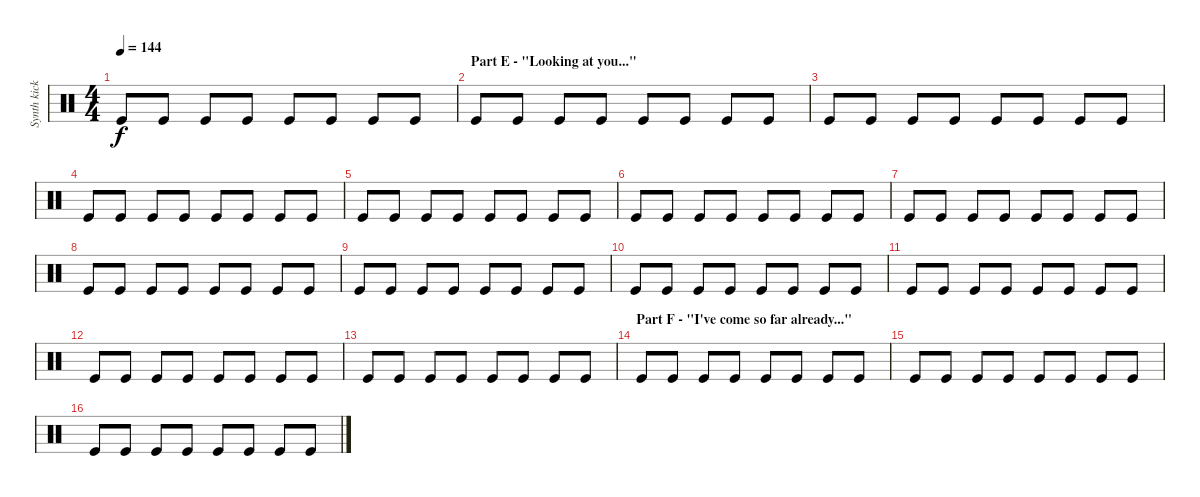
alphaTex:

\track ("Synth kick loop" "Synth kick") {instrument percussion}
\staff {score}
\articulation defaults
\ts (4 4)
\tempo 144
\clef neutral
\ks c "Kick (hit)".8{dy f} "Kick (hit)".8 "Kick (hit)".8 "Kick (hit)".8 "Kick (hit)".8 "Kick (hit)".8 "Kick (hit)".8 "Kick (hit)".8
|
\section ("" "Part E - \"Looking at you...\"")
"Kick (hit)".8 "Kick (hit)".8 "Kick (hit)".8 "Kick (hit)".8 "Kick (hit)".8 "Kick (hit)".8 "Kick (hit)".8 "Kick (hit)".8 |
"Kick (hit)".8 "Kick (hit)".8 "Kick (hit)".8 "Kick (hit)".8 "Kick (hit)".8 "Kick (hit)".8 "Kick (hit)".8 "Kick (hit)".8 |
"Kick (hit)".8 "Kick (hit)".8 "Kick (hit)".8 "Kick (hit)".8 "Kick (hit)".8 "Kick (hit)".8 "Kick (hit)".8 "Kick (hit)".8 |
"Kick (hit)".8 "Kick (hit)".8 "Kick (hit)".8 "Kick (hit)".8 "Kick (hit)".8 "Kick (hit)".8 "Kick (hit)".8 "Kick (hit)".8 |
"Kick (hit)".8 "Kick (hit)".8 "Kick (hit)".8 "Kick (hit)".8 "Kick (hit)".8 "Kick (hit)".8 "Kick (hit)".8 "Kick (hit)".8 |
"Kick (hit)".8 "Kick (hit)".8 "Kick (hit)".8 "Kick (hit)".8 "Kick (hit)".8 "Kick (hit)".8 "Kick (hit)".8 "Kick (hit)".8 |
"Kick (hit)".8 "Kick (hit)".8 "Kick (hit)".8 "Kick (hit)".8 "Kick (hit)".8 "Kick (hit)".8 "Kick (hit)".8 "Kick (hit)".8 |
"Kick (hit)".8 "Kick (hit)".8 "Kick (hit)".8 "Kick (hit)".8 "Kick (hit)".8 "Kick (hit)".8 "Kick (hit)".8 "Kick (hit)".8 |
"Kick (hit)".8 "Kick (hit)".8 "Kick (hit)".8 "Kick (hit)".8 "Kick (hit)".8 "Kick (hit)".8 "Kick (hit)".8 "Kick (hit)".8 |
"Kick (hit)".8 "Kick (hit)".8 "Kick (hit)".8 "Kick (hit)".8 "Kick (hit)".8 "Kick (hit)".8 "Kick (hit)".8 "Kick (hit)".8 |
"Kick (hit)".8 "Kick (hit)".8 "Kick (hit)".8 "Kick (hit)".8 "Kick (hit)".8 "Kick (hit)".8 "Kick (hit)".8 "Kick (hit)".8 |
"Kick (hit)".8 "Kick (hit)".8 "Kick (hit)".8 "Kick (hit)".8 "Kick (hit)".8 "Kick (hit)".8 "Kick (hit)".8 "Kick (hit)".8 |
\section ("" "Part F - \"I've come so far already...\"")
"Kick (hit)".8 "Kick (hit)".8 "Kick (hit)".8 "Kick (hit)".8 "Kick (hit)".8 "Kick (hit)".8 "Kick (hit)".8 "Kick (hit)".8 |
"Kick (hit)".8 "Kick (hit)".8 "Kick (hit)".8 "Kick (hit)".8 "Kick (hit)".8 "Kick (hit)".8 "Kick (hit)".8 "Kick (hit)".8 |
"Kick (hit)".8 "Kick (hit)".8 "Kick (hit)".8 "Kick (hit)".8 "Kick (hit)".8 "Kick (hit)".8 "Kick (hit)".8 "Kick (hit)".8
